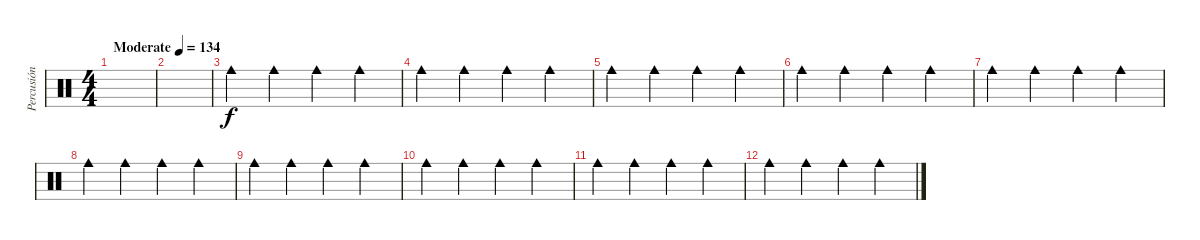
\track ("Percusión" "Percusión") {instrument percussion}
\staff {score}
\articulation defaults
\ts (4 4)
\tempo (134 "Moderate")
\clef neutral
\ks c
|
|
"Cowbell medium (hit)".4 "Cowbell medium (hit)".4 "Cowbell medium (hit)".4 "Cowbell medium (hit)".4 |
"Cowbell medium (hit)".4 "Cowbell medium (hit)".4 "Cowbell medium (hit)".4 "Cowbell medium (hit)".4 |
"Cowbell medium (hit)".4 "Cowbell medium (hit)".4 "Cowbell medium (hit)".4 "Cowbell medium (hit)".4 |
"Cowbell medium (hit)".4 "Cowbell medium (hit)".4 "Cowbell medium (hit)".4 "Cowbell medium (hit)".4 |
"Cowbell medium (hit)".4 "Cowbell medium (hit)".4 "Cowbell medium (hit)".4 "Cowbell medium (hit)".4 |
"Cowbell medium (hit)".4 "Cowbell medium (hit)".4 "Cowbell medium (hit)".4 "Cowbell medium (hit)".4 |
"Cowbell medium (hit)".4 "Cowbell medium (hit)".4 "Cowbell medium (hit)".4 "Cowbell medium (hit)".4 |
"Cowbell medium (hit)".4 "Cowbell medium (hit)".4 "Cowbell medium (hit)".4 "Cowbell medium (hit)".4 |
"Cowbell medium (hit)".4 "Cowbell medium (hit)".4 "Cowbell medium (hit)".4 "Cowbell medium (hit)".4 |
"Cowbell medium (hit)".4 "Cowbell medium (hit)".4 "Cowbell medium (hit)".4 "Cowbell medium (hit)".4
